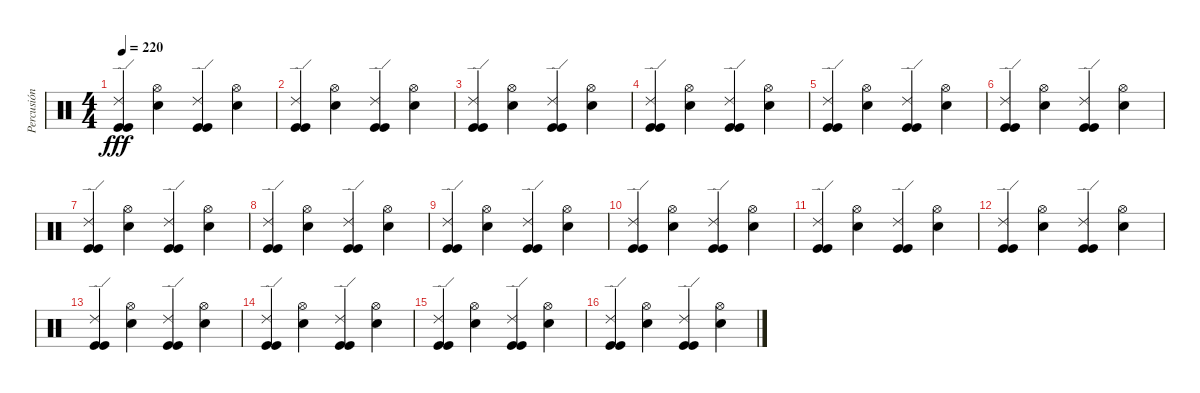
\track ("Percusión" "Percusión") {instrument percussion}
\staff {score}
\articulation defaults
\ts (4 4)
\tempo 220
\clef neutral
\ks c
("Ride (edge) 2" "Kick (hit)" "Kick (hit)").4{dy fff} ("Hi-Hat (open)" "Snare (hit) 2").4 ("Ride (edge) 2" "Kick (hit)" "Kick (hit)").4 ("Hi-Hat (open)" "Snare (hit) 2").4 |
("Ride (edge) 2" "Kick (hit)" "Kick (hit)").4 ("Hi-Hat (open)" "Snare (hit) 2").4 ("Ride (edge) 2" "Kick (hit)" "Kick (hit)").4 ("Hi-Hat (open)" "Snare (hit) 2").4 |
("Ride (edge) 2" "Kick (hit)" "Kick (hit)").4 ("Hi-Hat (open)" "Snare (hit) 2").4 ("Ride (edge) 2" "Kick (hit)" "Kick (hit)").4 ("Hi-Hat (open)" "Snare (hit) 2").4 |
("Ride (edge) 2" "Kick (hit)" "Kick (hit)").4 ("Hi-Hat (open)" "Snare (hit) 2").4 ("Ride (edge) 2" "Kick (hit)" "Kick (hit)").4 ("Hi-Hat (open)" "Snare (hit) 2").4 |
("Ride (edge) 2" "Kick (hit)" "Kick (hit)").4 ("Hi-Hat (open)" "Snare (hit) 2").4 ("Ride (edge) 2" "Kick (hit)" "Kick (hit)").4 ("Hi-Hat (open)" "Snare (hit) 2").4 |
("Ride (edge) 2" "Kick (hit)" "Kick (hit)").4 ("Hi-Hat (open)" "Snare (hit) 2").4 ("Ride (edge) 2" "Kick (hit)" "Kick (hit)").4 ("Hi-Hat (open)" "Snare (hit) 2").4 |
("Ride (edge) 2" "Kick (hit)" "Kick (hit)").4 ("Hi-Hat (open)" "Snare (hit) 2").4 ("Ride (edge) 2" "Kick (hit)" "Kick (hit)").4 ("Hi-Hat (open)" "Snare (hit) 2").4 |
("Ride (edge) 2" "Kick (hit)" "Kick (hit)").4 ("Hi-Hat (open)" "Snare (hit) 2").4 ("Ride (edge) 2" "Kick (hit)" "Kick (hit)").4 ("Hi-Hat (open)" "Snare (hit) 2").4 |
("Ride (edge) 2" "Kick (hit)" "Kick (hit)").4 ("Hi-Hat (open)" "Snare (hit) 2").4 ("Ride (edge) 2" "Kick (hit)" "Kick (hit)").4 ("Hi-Hat (open)" "Snare (hit) 2").4 |
("Ride (edge) 2" "Kick (hit)" "Kick (hit)").4 ("Hi-Hat (open)" "Snare (hit) 2").4 ("Ride (edge) 2" "Kick (hit)" "Kick (hit)").4 ("Hi-Hat (open)" "Snare (hit) 2").4 |
("Ride (edge) 2" "Kick (hit)" "Kick (hit)").4 ("Hi-Hat (open)" "Snare (hit) 2").4 ("Ride (edge) 2" "Kick (hit)" "Kick (hit)").4 ("Hi-Hat (open)" "Snare (hit) 2").4 |
("Ride (edge) 2" "Kick (hit)" "Kick (hit)").4 ("Hi-Hat (open)" "Snare (hit) 2").4 ("Ride (edge) 2" "Kick (hit)" "Kick (hit)").4 ("Hi-Hat (open)" "Snare (hit) 2").4 |
("Ride (edge) 2" "Kick (hit)" "Kick (hit)").4 ("Hi-Hat (open)" "Snare (hit) 2").4 ("Ride (edge) 2" "Kick (hit)" "Kick (hit)").4 ("Hi-Hat (open)" "Snare (hit) 2").4 |
("Ride (edge) 2" "Kick (hit)" "Kick (hit)").4 ("Hi-Hat (open)" "Snare (hit) 2").4 ("Ride (edge) 2" "Kick (hit)" "Kick (hit)").4 ("Hi-Hat (open)" "Snare (hit) 2").4 |
("Ride (edge) 2" "Kick (hit)" "Kick (hit)").4 ("Hi-Hat (open)" "Snare (hit) 2").4 ("Ride (edge) 2" "Kick (hit)" "Kick (hit)").4 ("Hi-Hat (open)" "Snare (hit) 2").4 |
("Ride (edge) 2" "Kick (hit)" "Kick (hit)").4 ("Hi-Hat (open)" "Snare (hit) 2").4 ("Ride (edge) 2" "Kick (hit)" "Kick (hit)").4 ("Hi-Hat (open)" "Snare (hit) 2").4
